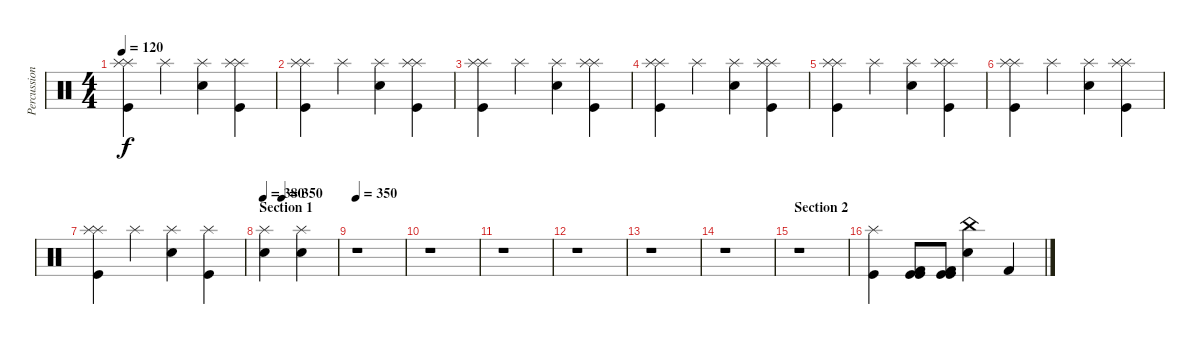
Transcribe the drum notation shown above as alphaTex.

\track ("Percussions" "Percussion") {instrument percussion}
\staff {score}
\articulation defaults
\ts (4 4)
\tempo 120
\tempo 150
\tempo 120
\clef neutral
\ks c
("Splash (hit)" "Splash (hit)" "Kick (hit)").4{dy f} "Splash (hit)".4 ("Splash (hit)" "Snare (hit) 2").4 ("Splash (hit)" "Splash (hit)" "Kick (hit)").4 |
("Splash (hit)" "Splash (hit)" "Kick (hit)").4 "Splash (hit)".4 ("Splash (hit)" "Snare (hit) 2").4 ("Splash (hit)" "Splash (hit)" "Kick (hit)").4 |
("Splash (hit)" "Splash (hit)" "Kick (hit)").4 "Splash (hit)".4 ("Splash (hit)" "Snare (hit) 2").4 ("Splash (hit)" "Splash (hit)" "Kick (hit)").4 |
("Splash (hit)" "Splash (hit)" "Kick (hit)").4 "Splash (hit)".4 ("Splash (hit)" "Snare (hit) 2").4 ("Splash (hit)" "Splash (hit)" "Kick (hit)").4 |
("Splash (hit)" "Splash (hit)" "Kick (hit)").4 "Splash (hit)".4 ("Splash (hit)" "Snare (hit) 2").4 ("Splash (hit)" "Splash (hit)" "Kick (hit)").4 |
("Splash (hit)" "Splash (hit)" "Kick (hit)").4 "Splash (hit)".4 ("Splash (hit)" "Snare (hit) 2").4 ("Splash (hit)" "Splash (hit)" "Kick (hit)").4 |
("Kick (hit)" "Splash (hit)" "Splash (hit)").4 "Splash (hit)".4 ("Splash (hit)" "Snare (hit) 2").4 ("Kick (hit)" "Splash (hit)").4 |
\section ("" "Section 1")
\tempo 380
\tempo (350 0.25)
("Splash (hit)" "Snare (hit) 2").4 ("Snare (hit) 2" "Splash (hit)").4 |
\tempo 350
r.1 |
r.1 |
r.1 |
r.1 |
r.1 |
r.1 |
\section ("" "Section 2")
r.1 |
("Splash (hit)" "Kick (hit)").4 ("Kick (hit) 2" "Kick (hit)" "Kick (hit)").8 ("Kick (hit) 2" "Kick (hit)" "Kick (hit)").8 ("China (hit)" "Snare (hit) 2").4 "Kick (hit) 2".4
